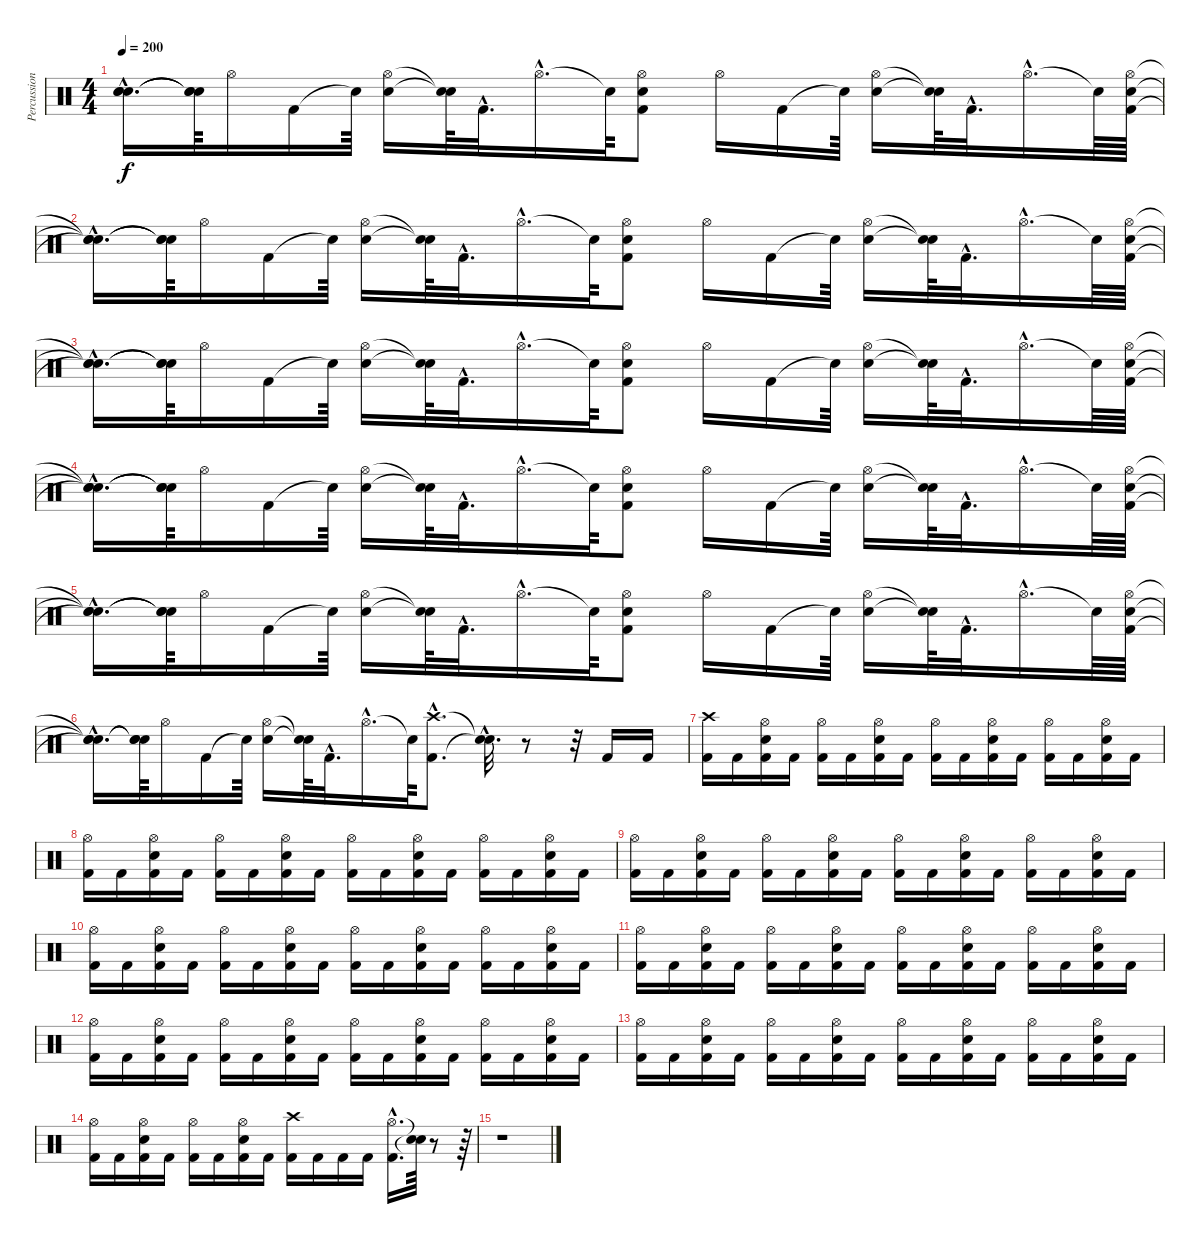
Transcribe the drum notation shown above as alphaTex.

\track ("Percussion" "Percussion") {instrument percussion}
\staff {score}
\articulation defaults
\ts (4 4)
\tempo 200
\clef neutral
\ks c
("Snare (hit)"{hac t} "Snare (hit)"{hac t} "Snare (hit)"{hac t}).16{d dy f} ("Snare (hit)"{t} "Snare (hit)"{t} "Snare (hit)"{t}).64 "Hi-Hat (open)".16 "Kick (hit) 2".16 "Snare (hit)"{t}.64 ("Electric Snare (hit)" "Hi-Hat (open)").16 ("Snare (hit)"{t} "Snare (hit)"{t}).64 "Kick (hit) 2"{hac}.32{d} "Hi-Hat (open)"{hac}.16{d} "Snare (hit)"{t}.64 ("Electric Snare (hit)" "Hi-Hat (open)" "Kick (hit) 2").8 "Hi-Hat (open)".16 "Kick (hit) 2".16 "Snare (hit)"{t}.64 ("Electric Snare (hit)" "Hi-Hat (open)").16 ("Snare (hit)"{t} "Snare (hit)"{t}).64 "Kick (hit) 2"{hac}.32{d} "Hi-Hat (open)"{hac}.16{d} "Snare (hit)"{t}.64 ("Electric Snare (hit)" "Hi-Hat (open)" "Kick (hit) 2").64 |
("Snare (hit)"{hac t} "Snare (hit)"{hac t} "Snare (hit)"{hac t}).16{d} ("Snare (hit)"{t} "Snare (hit)"{t} "Snare (hit)"{t}).64 "Hi-Hat (open)".16 "Kick (hit) 2".16 "Snare (hit)"{t}.64 ("Electric Snare (hit)" "Hi-Hat (open)").16 ("Snare (hit)"{t} "Snare (hit)"{t}).64 "Kick (hit) 2"{hac}.32{d} "Hi-Hat (open)"{hac}.16{d} "Snare (hit)"{t}.64 ("Electric Snare (hit)" "Hi-Hat (open)" "Kick (hit) 2").8 "Hi-Hat (open)".16 "Kick (hit) 2".16 "Snare (hit)"{t}.64 ("Electric Snare (hit)" "Hi-Hat (open)").16 ("Snare (hit)"{t} "Snare (hit)"{t}).64 "Kick (hit) 2"{hac}.32{d} "Hi-Hat (open)"{hac}.16{d} "Snare (hit)"{t}.64 ("Electric Snare (hit)" "Hi-Hat (open)" "Kick (hit) 2").64 |
("Snare (hit)"{hac t} "Snare (hit)"{hac t} "Snare (hit)"{hac t}).16{d} ("Snare (hit)"{t} "Snare (hit)"{t} "Snare (hit)"{t}).64 "Hi-Hat (open)".16 "Kick (hit) 2".16 "Snare (hit)"{t}.64 ("Electric Snare (hit)" "Hi-Hat (open)").16 ("Snare (hit)"{t} "Snare (hit)"{t}).64 "Kick (hit) 2"{hac}.32{d} "Hi-Hat (open)"{hac}.16{d} "Snare (hit)"{t}.64 ("Electric Snare (hit)" "Hi-Hat (open)" "Kick (hit) 2").8 "Hi-Hat (open)".16 "Kick (hit) 2".16 "Snare (hit)"{t}.64 ("Electric Snare (hit)" "Hi-Hat (open)").16 ("Snare (hit)"{t} "Snare (hit)"{t}).64 "Kick (hit) 2"{hac}.32{d} "Hi-Hat (open)"{hac}.16{d} "Snare (hit)"{t}.64 ("Electric Snare (hit)" "Hi-Hat (open)" "Kick (hit) 2").64 |
("Snare (hit)"{hac t} "Snare (hit)"{hac t} "Snare (hit)"{hac t}).16{d} ("Snare (hit)"{t} "Snare (hit)"{t} "Snare (hit)"{t}).64 "Hi-Hat (open)".16 "Kick (hit) 2".16 "Snare (hit)"{t}.64 ("Electric Snare (hit)" "Hi-Hat (open)").16 ("Snare (hit)"{t} "Snare (hit)"{t}).64 "Kick (hit) 2"{hac}.32{d} "Hi-Hat (open)"{hac}.16{d} "Snare (hit)"{t}.64 ("Electric Snare (hit)" "Hi-Hat (open)" "Kick (hit) 2").8 "Hi-Hat (open)".16 "Kick (hit) 2".16 "Snare (hit)"{t}.64 ("Electric Snare (hit)" "Hi-Hat (open)").16 ("Snare (hit)"{t} "Snare (hit)"{t}).64 "Kick (hit) 2"{hac}.32{d} "Hi-Hat (open)"{hac}.16{d} "Snare (hit)"{t}.64 ("Electric Snare (hit)" "Hi-Hat (open)" "Kick (hit) 2").64 |
("Snare (hit)"{hac t} "Snare (hit)"{hac t} "Snare (hit)"{hac t}).16{d} ("Snare (hit)"{t} "Snare (hit)"{t} "Snare (hit)"{t}).64 "Hi-Hat (open)".16 "Kick (hit) 2".16 "Snare (hit)"{t}.64 ("Electric Snare (hit)" "Hi-Hat (open)").16 ("Snare (hit)"{t} "Snare (hit)"{t}).64 "Kick (hit) 2"{hac}.32{d} "Hi-Hat (open)"{hac}.16{d} "Snare (hit)"{t}.64 ("Electric Snare (hit)" "Hi-Hat (open)" "Kick (hit) 2").8 "Hi-Hat (open)".16 "Kick (hit) 2".16 "Snare (hit)"{t}.64 ("Electric Snare (hit)" "Hi-Hat (open)").16 ("Snare (hit)"{t} "Snare (hit)"{t}).64 "Kick (hit) 2"{hac}.32{d} "Hi-Hat (open)"{hac}.16{d} "Snare (hit)"{t}.64 ("Electric Snare (hit)" "Hi-Hat (open)" "Kick (hit) 2").64 |
("Snare (hit)"{hac t} "Snare (hit)"{hac t} "Snare (hit)"{hac t}).16{d} ("Snare (hit)"{t} "Snare (hit)"{t} "Snare (hit)"{t}).64 "Hi-Hat (open)".16 "Kick (hit) 2".16 "Snare (hit)"{t}.64 ("Electric Snare (hit)" "Hi-Hat (open)").16 ("Snare (hit)"{t} "Snare (hit)"{t}).64 "Kick (hit) 2"{hac}.32{d} "Hi-Hat (open)"{hac}.16{d} "Snare (hit)"{t}.64 ("Kick (hit) 2"{hac} "Crash high (hit)"{hac}).8{d} ("Snare (hit)"{hac t} "Snare (hit)"{hac t}).32{d} r.8 r.32 "Kick (hit) 2".16 "Kick (hit) 2".16 |
("Kick (hit) 2" "Crash high (hit)").16 "Kick (hit) 2".16 ("Kick (hit) 2" "Electric Snare (hit)" "Hi-Hat (open)").16 "Kick (hit) 2".16 ("Kick (hit) 2" "Hi-Hat (open)").16 "Kick (hit) 2".16 ("Kick (hit) 2" "Electric Snare (hit)" "Hi-Hat (open)").16 "Kick (hit) 2".16 ("Kick (hit) 2" "Hi-Hat (open)").16 "Kick (hit) 2".16 ("Kick (hit) 2" "Electric Snare (hit)" "Hi-Hat (open)").16 "Kick (hit) 2".16 ("Kick (hit) 2" "Hi-Hat (open)").16 "Kick (hit) 2".16 ("Kick (hit) 2" "Electric Snare (hit)" "Hi-Hat (open)").16 "Kick (hit) 2".16 |
("Kick (hit) 2" "Hi-Hat (open)").16 "Kick (hit) 2".16 ("Kick (hit) 2" "Electric Snare (hit)" "Hi-Hat (open)").16 "Kick (hit) 2".16 ("Kick (hit) 2" "Hi-Hat (open)").16 "Kick (hit) 2".16 ("Kick (hit) 2" "Electric Snare (hit)" "Hi-Hat (open)").16 "Kick (hit) 2".16 ("Kick (hit) 2" "Hi-Hat (open)").16 "Kick (hit) 2".16 ("Kick (hit) 2" "Electric Snare (hit)" "Hi-Hat (open)").16 "Kick (hit) 2".16 ("Kick (hit) 2" "Hi-Hat (open)").16 "Kick (hit) 2".16 ("Kick (hit) 2" "Electric Snare (hit)" "Hi-Hat (open)").16 "Kick (hit) 2".16 |
("Kick (hit) 2" "Hi-Hat (open)").16 "Kick (hit) 2".16 ("Kick (hit) 2" "Electric Snare (hit)" "Hi-Hat (open)").16 "Kick (hit) 2".16 ("Kick (hit) 2" "Hi-Hat (open)").16 "Kick (hit) 2".16 ("Kick (hit) 2" "Electric Snare (hit)" "Hi-Hat (open)").16 "Kick (hit) 2".16 ("Kick (hit) 2" "Hi-Hat (open)").16 "Kick (hit) 2".16 ("Kick (hit) 2" "Electric Snare (hit)" "Hi-Hat (open)").16 "Kick (hit) 2".16 ("Kick (hit) 2" "Hi-Hat (open)").16 "Kick (hit) 2".16 ("Kick (hit) 2" "Electric Snare (hit)" "Hi-Hat (open)").16 "Kick (hit) 2".16 |
("Kick (hit) 2" "Hi-Hat (open)").16 "Kick (hit) 2".16 ("Kick (hit) 2" "Electric Snare (hit)" "Hi-Hat (open)").16 "Kick (hit) 2".16 ("Kick (hit) 2" "Hi-Hat (open)").16 "Kick (hit) 2".16 ("Kick (hit) 2" "Electric Snare (hit)" "Hi-Hat (open)").16 "Kick (hit) 2".16 ("Kick (hit) 2" "Hi-Hat (open)").16 "Kick (hit) 2".16 ("Kick (hit) 2" "Electric Snare (hit)" "Hi-Hat (open)").16 "Kick (hit) 2".16 ("Kick (hit) 2" "Hi-Hat (open)").16 "Kick (hit) 2".16 ("Kick (hit) 2" "Electric Snare (hit)" "Hi-Hat (open)").16 "Kick (hit) 2".16 |
("Kick (hit) 2" "Hi-Hat (open)").16 "Kick (hit) 2".16 ("Kick (hit) 2" "Electric Snare (hit)" "Hi-Hat (open)").16 "Kick (hit) 2".16 ("Kick (hit) 2" "Hi-Hat (open)").16 "Kick (hit) 2".16 ("Kick (hit) 2" "Electric Snare (hit)" "Hi-Hat (open)").16 "Kick (hit) 2".16 ("Kick (hit) 2" "Hi-Hat (open)").16 "Kick (hit) 2".16 ("Kick (hit) 2" "Electric Snare (hit)" "Hi-Hat (open)").16 "Kick (hit) 2".16 ("Kick (hit) 2" "Hi-Hat (open)").16 "Kick (hit) 2".16 ("Kick (hit) 2" "Electric Snare (hit)" "Hi-Hat (open)").16 "Kick (hit) 2".16 |
("Kick (hit) 2" "Hi-Hat (open)").16 "Kick (hit) 2".16 ("Kick (hit) 2" "Electric Snare (hit)" "Hi-Hat (open)").16 "Kick (hit) 2".16 ("Kick (hit) 2" "Hi-Hat (open)").16 "Kick (hit) 2".16 ("Kick (hit) 2" "Electric Snare (hit)" "Hi-Hat (open)").16 "Kick (hit) 2".16 ("Kick (hit) 2" "Hi-Hat (open)").16 "Kick (hit) 2".16 ("Kick (hit) 2" "Electric Snare (hit)" "Hi-Hat (open)").16 "Kick (hit) 2".16 ("Kick (hit) 2" "Hi-Hat (open)").16 "Kick (hit) 2".16 ("Kick (hit) 2" "Electric Snare (hit)" "Hi-Hat (open)").16 "Kick (hit) 2".16 |
("Kick (hit) 2" "Hi-Hat (open)").16 "Kick (hit) 2".16 ("Kick (hit) 2" "Electric Snare (hit)" "Hi-Hat (open)").16 "Kick (hit) 2".16 ("Kick (hit) 2" "Hi-Hat (open)").16 "Kick (hit) 2".16 ("Kick (hit) 2" "Electric Snare (hit)" "Hi-Hat (open)").16 "Kick (hit) 2".16 ("Kick (hit) 2" "Hi-Hat (open)").16 "Kick (hit) 2".16 ("Kick (hit) 2" "Electric Snare (hit)" "Hi-Hat (open)").16 "Kick (hit) 2".16 ("Kick (hit) 2" "Hi-Hat (open)").16 "Kick (hit) 2".16 ("Kick (hit) 2" "Electric Snare (hit)" "Hi-Hat (open)").16 "Kick (hit) 2".16 |
("Kick (hit) 2" "Hi-Hat (open)").16 "Kick (hit) 2".16 ("Kick (hit) 2" "Electric Snare (hit)" "Hi-Hat (open)").16 "Kick (hit) 2".16 ("Kick (hit) 2" "Hi-Hat (open)").16 "Kick (hit) 2".16 ("Kick (hit) 2" "Electric Snare (hit)" "Hi-Hat (open)").16 "Kick (hit) 2".16 ("Kick (hit) 2" "Crash high (hit)").16 "Kick (hit) 2".16 "Kick (hit) 2".16 "Kick (hit) 2".16 ("Hi-Hat (open)"{hac} "Kick (hit) 2"{hac}).16{d} ("Snare (hit)"{t} "Snare (hit)"{t}).64 r.8 r.64 |
r.1
